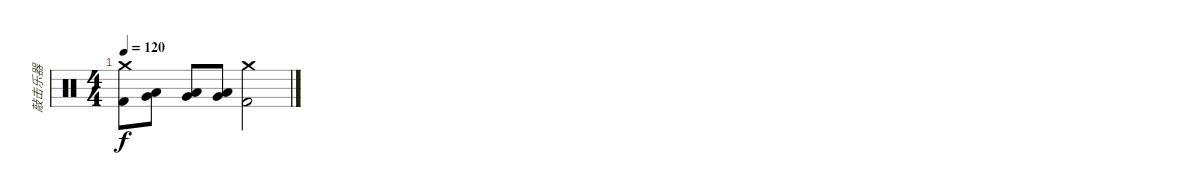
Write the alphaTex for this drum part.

\track ("敲击乐器" "敲击乐器") {instrument percussion}
\staff {score}
\articulation defaults
\ts (4 4)
\tempo 120
\clef neutral
\ks c
("Crash medium (hit)" "Kick (hit) 2").8{dy f} ("Low Tom (hit)" "Very Low Tom (hit)").8 ("Low Tom (hit)" "Very Low Tom (hit)").8 ("Low Tom (hit)" "Very Low Tom (hit)").8 ("Crash medium (hit)" "Kick (hit) 2").2
